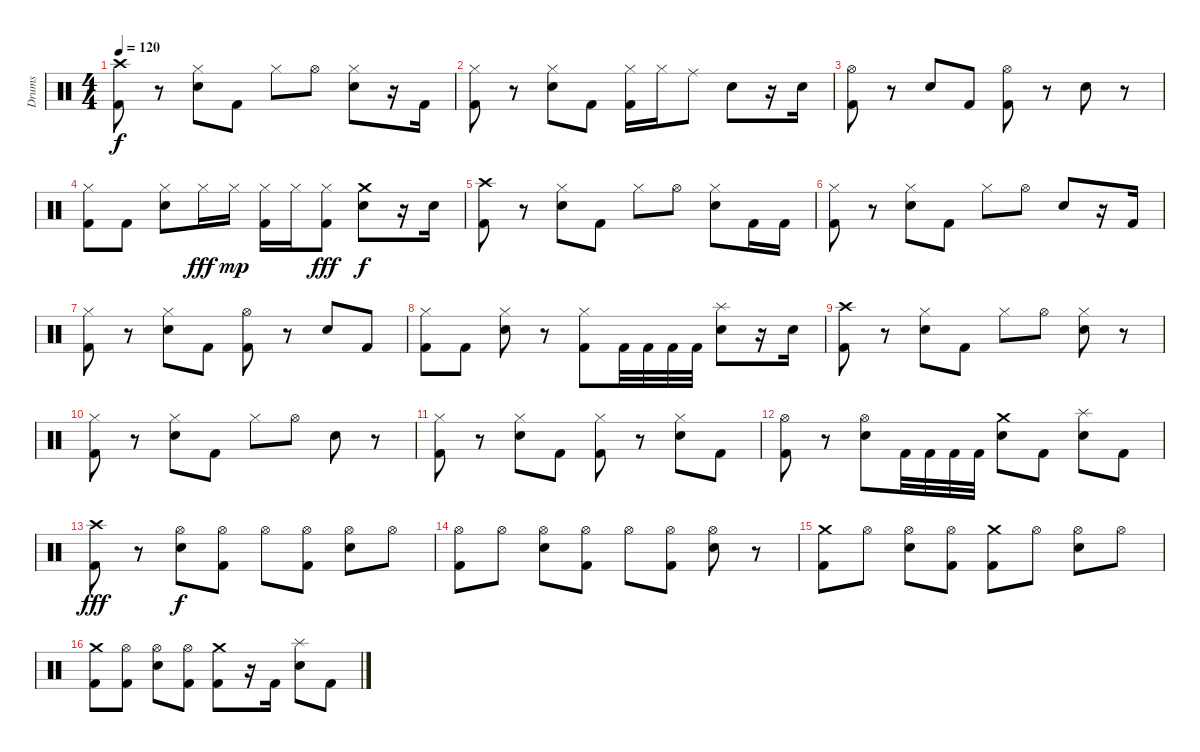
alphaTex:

\track ("Drums" "Drums") {instrument percussion}
\staff {score}
\articulation defaults
\ts (4 4)
\tempo 120
\clef neutral
\ks c
("Crash high (hit)" "Kick (hit) 2").8{dy f} r.8 ("Hi-Hat (closed)" "Electric Snare (hit)").8 "Kick (hit) 2".8 "Hi-Hat (closed)".8 "Hi-Hat (open)".8 ("Hi-Hat (closed)" "Electric Snare (hit)").8 r.16 "Kick (hit) 2".16 |
("Hi-Hat (closed)" "Kick (hit) 2").8 r.8 ("Hi-Hat (closed)" "Electric Snare (hit)").8 "Kick (hit) 2".8 ("Hi-Hat (closed)" "Kick (hit) 2").16 "Hi-Hat (closed)".16 "Ride (middle)".8 "Electric Snare (hit)".8 r.16 "Electric Snare (hit)".16 |
("Hi-Hat (open)" "Kick (hit) 2").8 r.8 "Electric Snare (hit)".8 "Kick (hit) 2".8 ("Hi-Hat (open)" "Kick (hit) 2").8 r.8 "Electric Snare (hit)".8 r.8 |
("Hi-Hat (closed)" "Kick (hit) 2").8 "Kick (hit) 2".8 ("Hi-Hat (closed)" "Electric Snare (hit)").8 "Hi-Hat (closed)".16{dy fff} "Hi-Hat (closed)".16{dy mp} ("Hi-Hat (closed)" "Kick (hit) 2").16 "Hi-Hat (closed)".16 ("Hi-Hat (closed)" "Kick (hit) 2").8{dy fff} ("Crash medium (hit)" "Electric Snare (hit)").8{dy f} r.16 "Electric Snare (hit)".16 |
("Crash high (hit)" "Kick (hit) 2").8 r.8 ("Hi-Hat (closed)" "Electric Snare (hit)").8 "Kick (hit) 2".8 "Hi-Hat (closed)".8 "Hi-Hat (open)".8 ("Hi-Hat (closed)" "Electric Snare (hit)").8 "Kick (hit) 2".16 "Kick (hit) 2".16 |
("Hi-Hat (closed)" "Kick (hit) 2").8 r.8 ("Hi-Hat (closed)" "Electric Snare (hit)").8 "Kick (hit) 2".8 "Hi-Hat (closed)".8 "Hi-Hat (open)".8 "Electric Snare (hit)".8 r.16 "Kick (hit) 2".16 |
("Hi-Hat (closed)" "Kick (hit) 2").8 r.8 ("Hi-Hat (closed)" "Electric Snare (hit)").8 "Kick (hit) 2".8 ("Hi-Hat (open)" "Kick (hit) 2").8 r.8 "Electric Snare (hit)".8 "Kick (hit) 2".8 |
("Hi-Hat (closed)" "Kick (hit) 2").8 "Kick (hit) 2".8 ("Hi-Hat (closed)" "Electric Snare (hit)").8 r.8 ("Hi-Hat (closed)" "Kick (hit) 2").8 "Kick (hit) 2".32 "Kick (hit) 2".32 "Kick (hit) 2".32 "Kick (hit) 2".32 ("Splash (hit)" "Electric Snare (hit)").8 r.16 "Electric Snare (hit)".16 |
("Crash high (hit)" "Kick (hit) 2").8 r.8 ("Hi-Hat (closed)" "Electric Snare (hit)").8 "Kick (hit) 2".8 "Hi-Hat (closed)".8 "Hi-Hat (open)".8 ("Hi-Hat (closed)" "Electric Snare (hit)").8 r.8 |
("Hi-Hat (closed)" "Kick (hit) 2").8 r.8 ("Hi-Hat (closed)" "Electric Snare (hit)").8 "Kick (hit) 2".8 "Hi-Hat (closed)".8 "Hi-Hat (open)".8 "Electric Snare (hit)".8 r.8 |
("Hi-Hat (closed)" "Kick (hit) 2").8 r.8 ("Hi-Hat (closed)" "Electric Snare (hit)").8 "Kick (hit) 2".8 ("Hi-Hat (closed)" "Kick (hit) 2").8 r.8 ("Hi-Hat (closed)" "Electric Snare (hit)").8 "Kick (hit) 2".8 |
("Hi-Hat (open)" "Kick (hit) 2").8 r.8 ("Hi-Hat (open)" "Electric Snare (hit)").8 "Kick (hit) 2".32 "Kick (hit) 2".32 "Kick (hit) 2".32 "Kick (hit) 2".32 ("Crash medium (hit)" "Electric Snare (hit)").8 "Kick (hit) 2".8 ("Splash (hit)" "Electric Snare (hit)").8 "Kick (hit) 2".8 |
("Crash high (hit)" "Kick (hit) 2").8{dy fff} r.8 ("Hi-Hat (open)" "Electric Snare (hit)").8{dy f} ("Hi-Hat (open)" "Kick (hit) 2").8 "Hi-Hat (open)".8 ("Hi-Hat (open)" "Kick (hit) 2").8 ("Hi-Hat (open)" "Electric Snare (hit)").8 "Hi-Hat (open)".8 |
("Hi-Hat (open)" "Kick (hit) 2").8 "Hi-Hat (open)".8 ("Hi-Hat (open)" "Electric Snare (hit)").8 ("Hi-Hat (open)" "Kick (hit) 2").8 "Hi-Hat (open)".8 ("Hi-Hat (open)" "Kick (hit) 2").8 ("Hi-Hat (open)" "Electric Snare (hit)").8 r.8 |
("Crash medium (hit)" "Kick (hit) 2").8 "Hi-Hat (open)".8 ("Hi-Hat (open)" "Electric Snare (hit)").8 ("Hi-Hat (open)" "Kick (hit) 2").8 ("Crash medium (hit)" "Kick (hit) 2").8 "Hi-Hat (open)".8 ("Hi-Hat (open)" "Electric Snare (hit)").8 "Hi-Hat (open)".8 |
("Crash medium (hit)" "Kick (hit) 2").8 ("Hi-Hat (open)" "Kick (hit) 2").8 ("Hi-Hat (open)" "Electric Snare (hit)").8 ("Hi-Hat (open)" "Kick (hit) 2").8 ("Crash medium (hit)" "Kick (hit) 2").8 r.16 "Kick (hit) 2".16 ("Splash (hit)" "Electric Snare (hit)").8 "Kick (hit) 2".8
